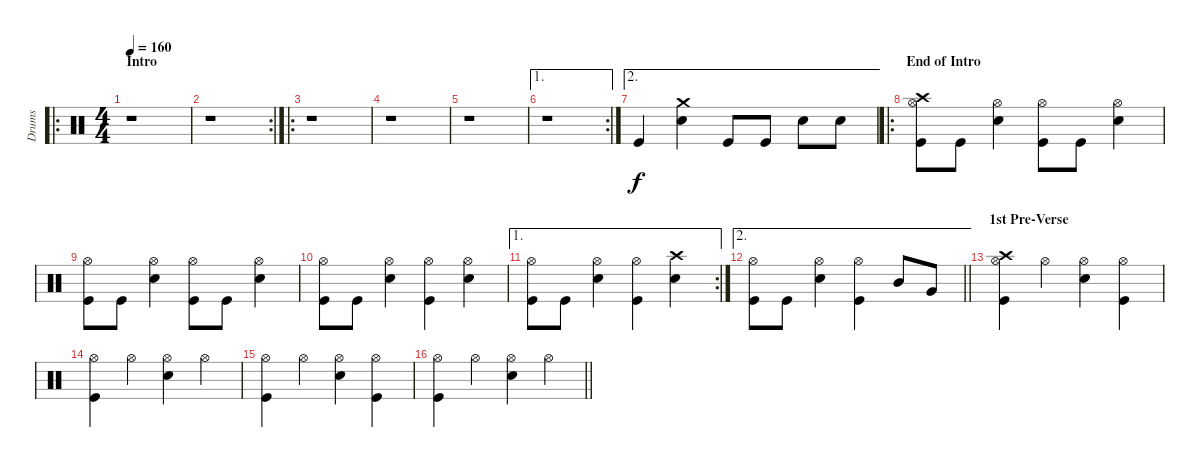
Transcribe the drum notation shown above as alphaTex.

\track ("Drums" "Drums") {instrument percussion}
\staff {score}
\articulation defaults
\ro
\ts (4 4)
\section ("" "Intro")
\tempo 160
\clef neutral
\ks c
r.1{dy f} |
\rc 2
r.1 |
\ro
r.1 |
r.1 |
r.1 |
\ae 1
\rc 2
r.1 |
\ae 2 "Kick (hit)".4
("Crash medium (hit)" "Snare (hit) 2").4 "Kick (hit)".8 "Kick (hit)".8 "Snare (hit) 2".8 "Snare (hit) 2".8 |
\ro
\section ("" "End of Intro")
("Crash high (hit)" "Hi-Hat (open)" "Kick (hit)").8 "Kick (hit)".8 ("Hi-Hat (open)" "Snare (hit) 2").4 ("Hi-Hat (open)" "Kick (hit)").8 "Kick (hit)".8 ("Hi-Hat (open)" "Snare (hit) 2").4 |
("Hi-Hat (open)" "Kick (hit)").8 "Kick (hit)".8 ("Hi-Hat (open)" "Snare (hit) 2").4 ("Hi-Hat (open)" "Kick (hit)").8 "Kick (hit)".8 ("Hi-Hat (open)" "Snare (hit) 2").4 |
("Hi-Hat (open)" "Kick (hit)").8 "Kick (hit)".8 ("Hi-Hat (open)" "Snare (hit) 2").4 ("Hi-Hat (open)" "Kick (hit)").4 ("Hi-Hat (open)" "Snare (hit) 2").4 |
\ae 1
\rc 2
("Hi-Hat (open)" "Kick (hit)").8 "Kick (hit)".8 ("Hi-Hat (open)" "Snare (hit) 2").4 ("Hi-Hat (open)" "Kick (hit)").4 ("Crash high (hit)" "Snare (hit) 2").4 |
\ae 2
\barLineRight lightlight
("Hi-Hat (open)" "Kick (hit)").8 "Kick (hit)".8 ("Hi-Hat (open)" "Snare (hit) 2").4 ("Hi-Hat (open)" "Kick (hit)").4 "Mid Tom (hit)".8 "Very Low Tom (hit)".8 |
\section ("" "1st Pre-Verse")
("Crash high (hit)" "Hi-Hat (open)" "Kick (hit)").4 "Hi-Hat (open)".4 ("Hi-Hat (open)" "Snare (hit) 2").4 ("Hi-Hat (open)" "Kick (hit)").4 |
("Hi-Hat (open)" "Kick (hit)").4 "Hi-Hat (open)".4 ("Hi-Hat (open)" "Snare (hit) 2").4 "Hi-Hat (open)".4 |
("Hi-Hat (open)" "Kick (hit)").4 "Hi-Hat (open)".4 ("Hi-Hat (open)" "Snare (hit) 2").4 ("Hi-Hat (open)" "Kick (hit)").4 |
\barLineRight lightlight
("Hi-Hat (open)" "Kick (hit)").4 "Hi-Hat (open)".4 ("Hi-Hat (open)" "Snare (hit) 2").4 "Hi-Hat (open)".4
